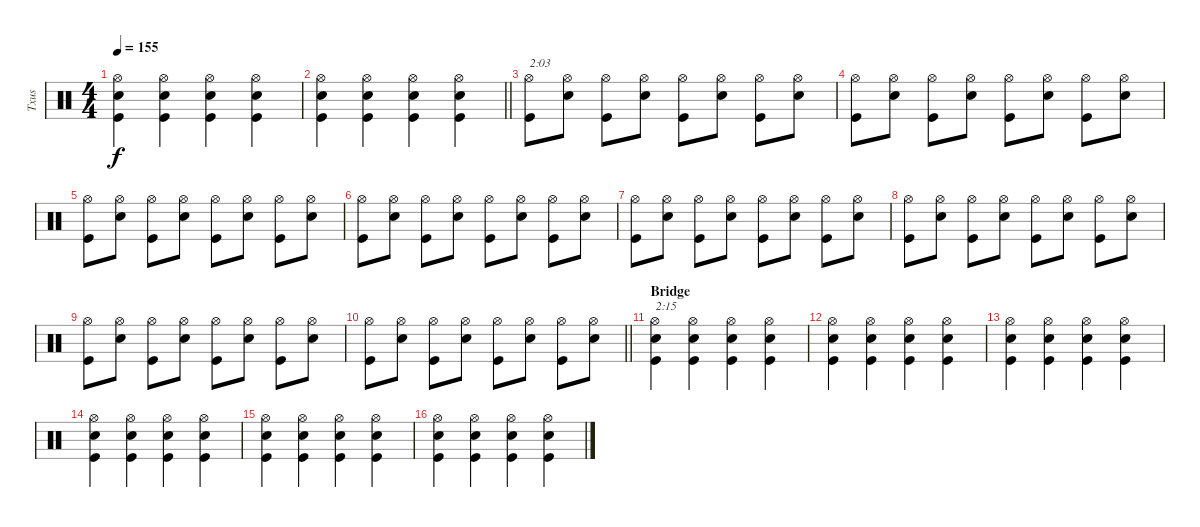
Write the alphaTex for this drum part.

\track ("Txus" "Txus") {instrument percussion}
\staff {score}
\articulation defaults
\ts (4 4)
\tempo 155
\clef neutral
\ks c
("Kick (hit)" "Snare (hit) 2" "Hi-Hat (open)").4{dy f} ("Kick (hit)" "Snare (hit) 2" "Hi-Hat (open)").4 ("Kick (hit)" "Snare (hit) 2" "Hi-Hat (open)").4 ("Kick (hit)" "Snare (hit) 2" "Hi-Hat (open)").4 |
\barLineRight lightlight
("Kick (hit)" "Snare (hit) 2" "Hi-Hat (open)").4 ("Kick (hit)" "Snare (hit) 2" "Hi-Hat (open)").4 ("Kick (hit)" "Snare (hit) 2" "Hi-Hat (open)").4 ("Kick (hit)" "Snare (hit) 2" "Hi-Hat (open)").4 |
\section ("" "")
("Kick (hit)" "Hi-Hat (open)").8{txt "2:03"} ("Snare (hit) 2" "Hi-Hat (open)").8 ("Kick (hit)" "Hi-Hat (open)").8 ("Snare (hit) 2" "Hi-Hat (open)").8 ("Kick (hit)" "Hi-Hat (open)").8 ("Snare (hit) 2" "Hi-Hat (open)").8 ("Kick (hit)" "Hi-Hat (open)").8 ("Snare (hit) 2" "Hi-Hat (open)").8 |
("Kick (hit)" "Hi-Hat (open)").8 ("Snare (hit) 2" "Hi-Hat (open)").8 ("Kick (hit)" "Hi-Hat (open)").8 ("Snare (hit) 2" "Hi-Hat (open)").8 ("Kick (hit)" "Hi-Hat (open)").8 ("Snare (hit) 2" "Hi-Hat (open)").8 ("Kick (hit)" "Hi-Hat (open)").8 ("Snare (hit) 2" "Hi-Hat (open)").8 |
("Kick (hit)" "Hi-Hat (open)").8 ("Snare (hit) 2" "Hi-Hat (open)").8 ("Kick (hit)" "Hi-Hat (open)").8 ("Snare (hit) 2" "Hi-Hat (open)").8 ("Kick (hit)" "Hi-Hat (open)").8 ("Snare (hit) 2" "Hi-Hat (open)").8 ("Kick (hit)" "Hi-Hat (open)").8 ("Snare (hit) 2" "Hi-Hat (open)").8 |
("Kick (hit)" "Hi-Hat (open)").8 ("Snare (hit) 2" "Hi-Hat (open)").8 ("Kick (hit)" "Hi-Hat (open)").8 ("Snare (hit) 2" "Hi-Hat (open)").8 ("Kick (hit)" "Hi-Hat (open)").8 ("Snare (hit) 2" "Hi-Hat (open)").8 ("Kick (hit)" "Hi-Hat (open)").8 ("Snare (hit) 2" "Hi-Hat (open)").8 |
("Kick (hit)" "Hi-Hat (open)").8 ("Snare (hit) 2" "Hi-Hat (open)").8 ("Kick (hit)" "Hi-Hat (open)").8 ("Snare (hit) 2" "Hi-Hat (open)").8 ("Kick (hit)" "Hi-Hat (open)").8 ("Snare (hit) 2" "Hi-Hat (open)").8 ("Kick (hit)" "Hi-Hat (open)").8 ("Snare (hit) 2" "Hi-Hat (open)").8 |
("Kick (hit)" "Hi-Hat (open)").8 ("Snare (hit) 2" "Hi-Hat (open)").8 ("Kick (hit)" "Hi-Hat (open)").8 ("Snare (hit) 2" "Hi-Hat (open)").8 ("Kick (hit)" "Hi-Hat (open)").8 ("Snare (hit) 2" "Hi-Hat (open)").8 ("Kick (hit)" "Hi-Hat (open)").8 ("Snare (hit) 2" "Hi-Hat (open)").8 |
("Kick (hit)" "Hi-Hat (open)").8 ("Snare (hit) 2" "Hi-Hat (open)").8 ("Kick (hit)" "Hi-Hat (open)").8 ("Snare (hit) 2" "Hi-Hat (open)").8 ("Kick (hit)" "Hi-Hat (open)").8 ("Snare (hit) 2" "Hi-Hat (open)").8 ("Kick (hit)" "Hi-Hat (open)").8 ("Snare (hit) 2" "Hi-Hat (open)").8 |
\barLineRight lightlight
("Kick (hit)" "Hi-Hat (open)").8 ("Snare (hit) 2" "Hi-Hat (open)").8 ("Kick (hit)" "Hi-Hat (open)").8 ("Snare (hit) 2" "Hi-Hat (open)").8 ("Kick (hit)" "Hi-Hat (open)").8 ("Snare (hit) 2" "Hi-Hat (open)").8 ("Kick (hit)" "Hi-Hat (open)").8 ("Snare (hit) 2" "Hi-Hat (open)").8 |
\section ("" "Bridge")
("Kick (hit)" "Snare (hit) 2" "Hi-Hat (open)").4{txt "2:15"} ("Kick (hit)" "Snare (hit) 2" "Hi-Hat (open)").4 ("Kick (hit)" "Snare (hit) 2" "Hi-Hat (open)").4 ("Kick (hit)" "Snare (hit) 2" "Hi-Hat (open)").4 |
("Kick (hit)" "Snare (hit) 2" "Hi-Hat (open)").4 ("Kick (hit)" "Snare (hit) 2" "Hi-Hat (open)").4 ("Kick (hit)" "Snare (hit) 2" "Hi-Hat (open)").4 ("Kick (hit)" "Snare (hit) 2" "Hi-Hat (open)").4 |
("Kick (hit)" "Snare (hit) 2" "Hi-Hat (open)").4 ("Kick (hit)" "Snare (hit) 2" "Hi-Hat (open)").4 ("Kick (hit)" "Snare (hit) 2" "Hi-Hat (open)").4 ("Kick (hit)" "Snare (hit) 2" "Hi-Hat (open)").4 |
("Kick (hit)" "Snare (hit) 2" "Hi-Hat (open)").4 ("Kick (hit)" "Snare (hit) 2" "Hi-Hat (open)").4 ("Kick (hit)" "Snare (hit) 2" "Hi-Hat (open)").4 ("Kick (hit)" "Snare (hit) 2" "Hi-Hat (open)").4 |
("Kick (hit)" "Snare (hit) 2" "Hi-Hat (open)").4 ("Kick (hit)" "Snare (hit) 2" "Hi-Hat (open)").4 ("Kick (hit)" "Snare (hit) 2" "Hi-Hat (open)").4 ("Kick (hit)" "Snare (hit) 2" "Hi-Hat (open)").4 |
("Kick (hit)" "Snare (hit) 2" "Hi-Hat (open)").4 ("Kick (hit)" "Snare (hit) 2" "Hi-Hat (open)").4 ("Kick (hit)" "Snare (hit) 2" "Hi-Hat (open)").4 ("Kick (hit)" "Snare (hit) 2" "Hi-Hat (open)").4
